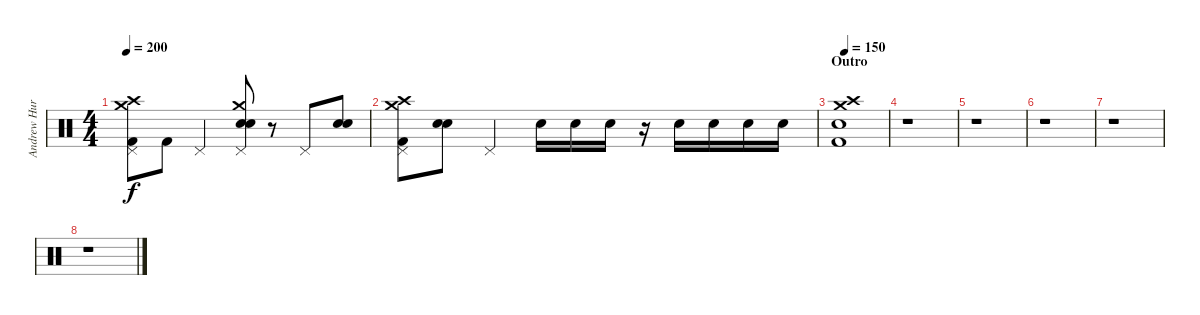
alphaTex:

\track ("Andrew Hurley (Drums)" "Andrew Hur") {instrument percussion}
\staff {score}
\articulation defaults
\ts (4 4)
\tempo 200
\clef neutral
\ks c
("Kick (hit) 2" "Pedal Hi-Hat (hit)" "Crash high (hit)" "Crash medium (hit)").8{dy f} "Kick (hit) 2".8 "Pedal Hi-Hat (hit)".4 ("Hand Clap (hit)" "Electric Snare (hit)" "Pedal Hi-Hat (hit)" "Crash medium (hit)").8 r.8 "Pedal Hi-Hat (hit)".8 ("Hand Clap (hit)" "Electric Snare (hit)").8 |
("Kick (hit) 2" "Pedal Hi-Hat (hit)" "Crash high (hit)" "Crash medium (hit)").8 ("Hand Clap (hit)" "Electric Snare (hit)").8 "Pedal Hi-Hat (hit)".4 "Electric Snare (hit)".16 "Electric Snare (hit)".16 "Electric Snare (hit)".16 r.16 "Electric Snare (hit)".16 "Electric Snare (hit)".16 "Electric Snare (hit)".16 "Electric Snare (hit)".16 |
\section ("" "Outro")
\tempo 150
("Crash medium (hit)" "Crash high (hit)" "Kick (hit) 2" "Electric Snare (hit)").1 |
r.1 |
r.1 |
r.1 |
r.1 |
r.1
